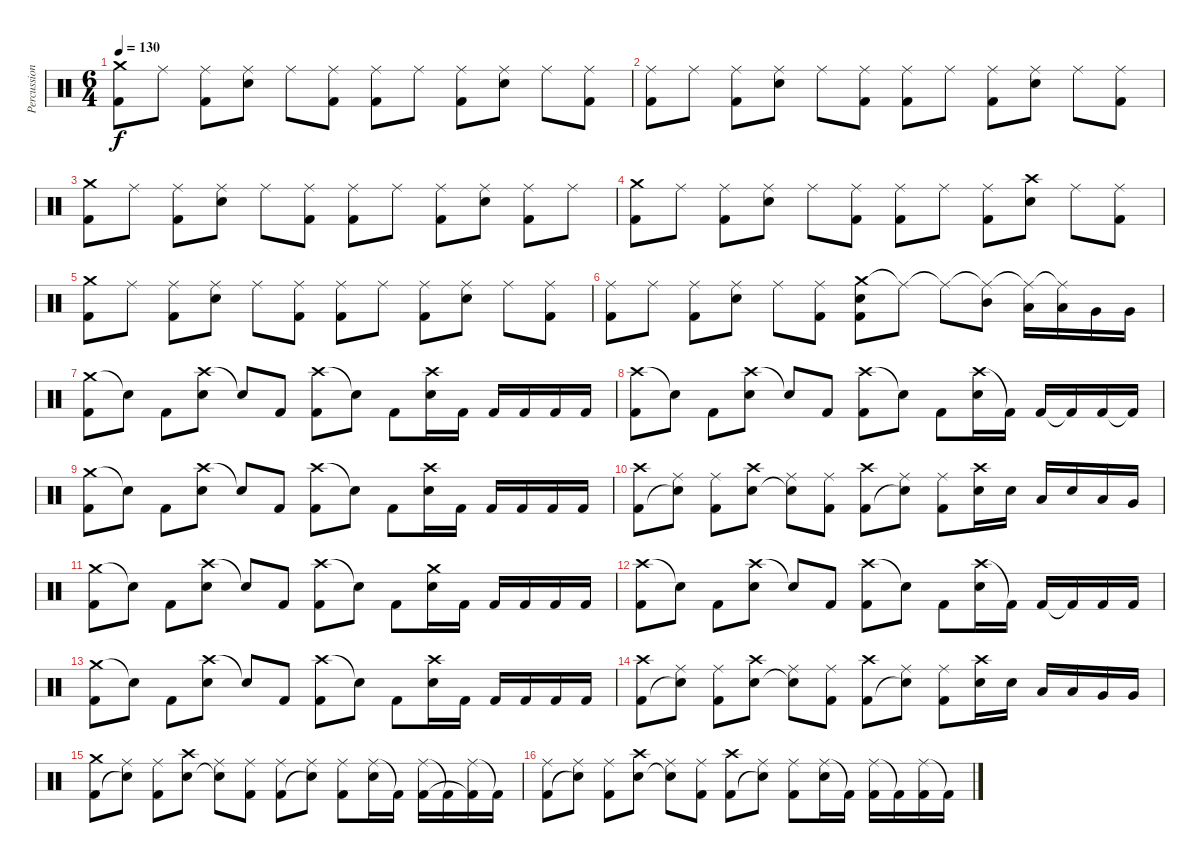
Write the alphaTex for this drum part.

\track ("Percussion" "Percussion") {instrument percussion}
\staff {score}
\articulation defaults
\ts (6 4)
\tempo 130
\clef neutral
\ks c
("Crash medium (hit)" "Kick (hit) 2").8{dy f} "Ride (middle)".8 ("Ride (middle)" "Kick (hit) 2").8 ("Ride (middle)" "Snare (hit) 2").8 "Ride (middle)".8 ("Ride (middle)" "Kick (hit) 2").8 ("Ride (middle)" "Kick (hit) 2").8 "Ride (middle)".8 ("Ride (middle)" "Kick (hit) 2").8 ("Ride (middle)" "Snare (hit) 2").8 "Ride (middle)".8 ("Ride (middle)" "Kick (hit) 2").8 |
("Ride (middle)" "Kick (hit) 2").8 "Ride (middle)".8 ("Ride (middle)" "Kick (hit) 2").8 ("Ride (middle)" "Snare (hit) 2").8 "Ride (middle)".8 ("Ride (middle)" "Kick (hit) 2").8 ("Ride (middle)" "Kick (hit) 2").8 "Ride (middle)".8 ("Ride (middle)" "Kick (hit) 2").8 ("Ride (middle)" "Snare (hit) 2").8 "Ride (middle)".8 ("Ride (middle)" "Kick (hit) 2").8 |
("Crash medium (hit)" "Kick (hit) 2").8 "Ride (middle)".8 ("Ride (middle)" "Kick (hit) 2").8 ("Ride (middle)" "Snare (hit) 2").8 "Ride (middle)".8 ("Ride (middle)" "Kick (hit) 2").8 ("Ride (middle)" "Kick (hit) 2").8 "Ride (middle)".8 ("Ride (middle)" "Kick (hit) 2").8 ("Ride (middle)" "Snare (hit) 2").8 ("Ride (middle)" "Kick (hit) 2").8 "Ride (middle)".8 |
("Crash medium (hit)" "Kick (hit) 2").8 "Ride (middle)".8 ("Ride (middle)" "Kick (hit) 2").8 ("Ride (middle)" "Snare (hit) 2").8 "Ride (middle)".8 ("Ride (middle)" "Kick (hit) 2").8 ("Ride (middle)" "Kick (hit) 2").8 "Ride (middle)".8 ("Ride (middle)" "Kick (hit) 2").8 ("Crash high (hit)" "Snare (hit) 2").8 "Ride (middle)".8 ("Ride (middle)" "Kick (hit) 2").8 |
("Crash medium (hit)" "Kick (hit) 2").8 "Ride (middle)".8 ("Ride (middle)" "Kick (hit) 2").8 ("Ride (middle)" "Snare (hit) 2").8 "Ride (middle)".8 ("Ride (middle)" "Kick (hit) 2").8 ("Ride (middle)" "Kick (hit) 2").8 "Ride (middle)".8 ("Ride (middle)" "Kick (hit) 2").8 ("Ride (middle)" "Snare (hit) 2").8 "Ride (middle)".8 ("Ride (middle)" "Kick (hit) 2").8 |
("Ride (middle)" "Kick (hit) 2").8 "Ride (middle)".8 ("Ride (middle)" "Kick (hit) 2").8 ("Ride (middle)" "Snare (hit) 2").8 "Ride (middle)".8 ("Ride (middle)" "Kick (hit) 2").8 ("Crash medium (hit)" "Snare (hit) 2" "Kick (hit) 2").8 "Ride (middle)"{t}.8 "Ride (middle)"{t}.8 ("Ride (middle)"{t} "Mid Tom (hit)").8 ("Ride (middle)"{t} "Low Tom (hit)").16 ("Ride (middle)"{t} "Low Tom (hit)").16 "Very Low Tom (hit)".16 "Very Low Tom (hit)".16 |
("Crash medium (hit)" "Kick (hit) 2").8 "Snare (hit)"{t}.8 "Kick (hit) 2".8 ("Crash high (hit)" "Snare (hit) 2").8 "Snare (hit)"{t}.8 "Kick (hit) 2".8 ("Crash high (hit)" "Kick (hit) 2").8 "Snare (hit)"{t}.8 "Kick (hit) 2".8 ("Crash high (hit)" "Snare (hit) 2").16 "Kick (hit) 2".16 "Kick (hit) 2".16 "Kick (hit) 2".16 "Kick (hit) 2".16 "Kick (hit) 2".16 |
("Crash high (hit)" "Kick (hit) 2").8 "Snare (hit)"{t}.8 "Kick (hit) 2".8 ("Crash high (hit)" "Snare (hit) 2").8 "Snare (hit)"{t}.8 "Kick (hit) 2".8 ("Crash high (hit)" "Kick (hit) 2").8 "Snare (hit)"{t}.8 "Kick (hit) 2".8 ("Crash high (hit)" "Snare (hit) 2").16 "Kick (hit) 2"{t}.16 "Kick (hit) 2".16 "Kick (hit) 2"{t}.16 "Kick (hit) 2".16 "Kick (hit) 2"{t}.16 |
("Crash medium (hit)" "Kick (hit) 2").8 "Snare (hit)"{t}.8 "Kick (hit) 2".8 ("Crash high (hit)" "Snare (hit) 2").8 "Snare (hit)"{t}.8 "Kick (hit) 2".8 ("Crash high (hit)" "Kick (hit) 2").8 "Snare (hit)"{t}.8 "Kick (hit) 2".8 ("Crash high (hit)" "Snare (hit) 2").16 "Kick (hit) 2".16 "Kick (hit) 2".16 "Kick (hit) 2".16 "Kick (hit) 2".16 "Kick (hit) 2".16 |
("Crash high (hit)" "Kick (hit) 2").8 ("Ride (middle)" "Snare (hit)"{t}).8 ("Ride (middle)" "Kick (hit) 2").8 ("Crash high (hit)" "Snare (hit) 2").8 ("Ride (middle)" "Snare (hit)"{t}).8 ("Ride (middle)" "Kick (hit) 2").8 ("Crash high (hit)" "Kick (hit) 2").8 ("Ride (middle)" "Snare (hit)"{t}).8 ("Ride (middle)" "Kick (hit) 2").8 ("Crash high (hit)" "Snare (hit) 2").16 "Snare (hit) 2".16 "Low Tom (hit)".16 "Electric Snare (hit)".16 "Low Tom (hit)".16 "Very Low Tom (hit)".16 |
("Crash medium (hit)" "Kick (hit) 2").8 "Snare (hit)"{t}.8 "Kick (hit) 2".8 ("Crash high (hit)" "Snare (hit) 2").8 "Snare (hit)"{t}.8 "Kick (hit) 2".8 ("Crash high (hit)" "Kick (hit) 2").8 "Snare (hit)"{t}.8 "Kick (hit) 2".8 ("Crash medium (hit)" "Snare (hit) 2").16 "Kick (hit) 2".16 "Kick (hit) 2".16 "Kick (hit) 2".16 "Kick (hit) 2".16 "Kick (hit) 2".16 |
("Crash high (hit)" "Kick (hit) 2").8 "Snare (hit)"{t}.8 "Kick (hit) 2".8 ("Crash high (hit)" "Snare (hit) 2").8 "Snare (hit)"{t}.8 "Kick (hit) 2".8 ("Crash high (hit)" "Kick (hit) 2").8 "Snare (hit)"{t}.8 "Kick (hit) 2".8 ("Crash high (hit)" "Snare (hit) 2").16 "Kick (hit) 2"{t}.16 "Kick (hit) 2".16 "Kick (hit) 2"{t}.16 "Kick (hit) 2".16 "Kick (hit) 2".16 |
("Crash medium (hit)" "Kick (hit) 2").8 "Snare (hit)"{t}.8 "Kick (hit) 2".8 ("Crash high (hit)" "Snare (hit) 2").8 "Snare (hit)"{t}.8 "Kick (hit) 2".8 ("Crash high (hit)" "Kick (hit) 2").8 "Snare (hit)"{t}.8 "Kick (hit) 2".8 ("Crash high (hit)" "Snare (hit) 2").16 "Kick (hit) 2".16 "Kick (hit) 2".16 "Kick (hit) 2".16 "Kick (hit) 2".16 "Kick (hit) 2".16 |
("Crash high (hit)" "Kick (hit) 2").8 ("Ride (middle)" "Snare (hit)"{t}).8 ("Ride (middle)" "Kick (hit) 2").8 ("Crash high (hit)" "Snare (hit) 2").8 ("Ride (middle)" "Snare (hit)"{t}).8 ("Ride (middle)" "Kick (hit) 2").8 ("Crash high (hit)" "Kick (hit) 2").8 ("Ride (middle)" "Snare (hit)"{t}).8 ("Ride (middle)" "Kick (hit) 2").8 ("Crash high (hit)" "Snare (hit) 2").16 "Snare (hit) 2".16 "Low Tom (hit)".16 "Low Tom (hit)".16 "Very Low Tom (hit)".16 "Very Low Tom (hit)".16 |
("Crash medium (hit)" "Kick (hit) 2").8 ("Ride (middle)" "Snare (hit)"{t}).8 ("Ride (middle)" "Kick (hit) 2").8 ("Crash high (hit)" "Snare (hit) 2").8 ("Ride (middle)" "Snare (hit)"{t}).8 ("Ride (middle)" "Kick (hit) 2").8 ("Ride (middle)" "Kick (hit) 2").8 ("Ride (middle)" "Snare (hit)"{t}).8 ("Ride (middle)" "Kick (hit) 2").8 ("Ride (middle)" "Snare (hit) 2").16 "Kick (hit) 2"{t}.16 ("Ride (middle)" "Kick (hit) 2").16 "Kick (hit) 2"{t}.16 ("Ride (middle)" "Kick (hit) 2"{t}).16 "Kick (hit) 2"{t}.16 |
("Ride (middle)" "Kick (hit) 2").8 ("Ride (middle)" "Snare (hit)"{t}).8 ("Ride (middle)" "Kick (hit) 2").8 ("Crash high (hit)" "Snare (hit) 2").8 ("Ride (middle)" "Snare (hit)"{t}).8 ("Ride (middle)" "Kick (hit) 2").8 ("Crash high (hit)" "Kick (hit) 2").8 ("Ride (middle)" "Snare (hit)"{t}).8 ("Ride (middle)" "Kick (hit) 2").8 ("Ride (middle)" "Snare (hit) 2").16 "Kick (hit) 2"{t}.16 ("Ride (middle)" "Kick (hit) 2").16 "Kick (hit) 2"{t}.16 ("Ride (middle)" "Kick (hit) 2").16 "Kick (hit) 2"{t}.16
